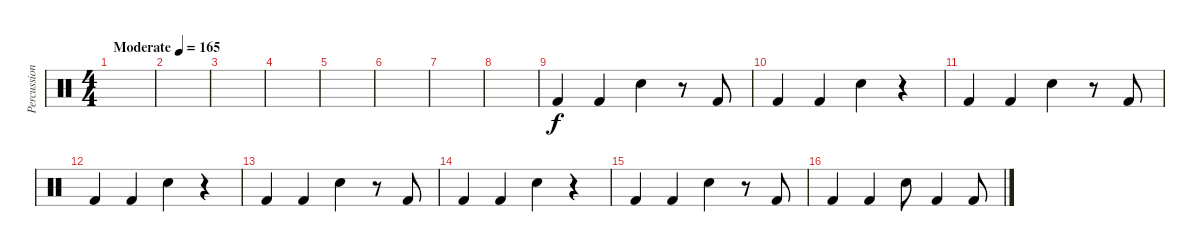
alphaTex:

\track ("Percussion" "Percussion") {instrument percussion}
\staff {score}
\articulation defaults
\ts (4 4)
\tempo (165 "Moderate")
\clef neutral
\ks c
|
|
|
|
|
|
|
|
"Kick (hit) 2".4 "Kick (hit) 2".4 "Electric Snare (hit)".4 r.8 "Kick (hit) 2".8 |
"Kick (hit) 2".4 "Kick (hit) 2".4 "Electric Snare (hit)".4 r.4 |
"Kick (hit) 2".4 "Kick (hit) 2".4 "Electric Snare (hit)".4 r.8 "Kick (hit) 2".8 |
"Kick (hit) 2".4 "Kick (hit) 2".4 "Electric Snare (hit)".4 r.4 |
"Kick (hit) 2".4 "Kick (hit) 2".4 "Electric Snare (hit)".4 r.8 "Kick (hit) 2".8 |
"Kick (hit) 2".4 "Kick (hit) 2".4 "Electric Snare (hit)".4 r.4 |
"Kick (hit) 2".4 "Kick (hit) 2".4 "Electric Snare (hit)".4 r.8 "Kick (hit) 2".8 |
"Kick (hit) 2".4 "Kick (hit) 2".4 "Electric Snare (hit)".8 "Kick (hit) 2".4 "Kick (hit) 2".8
